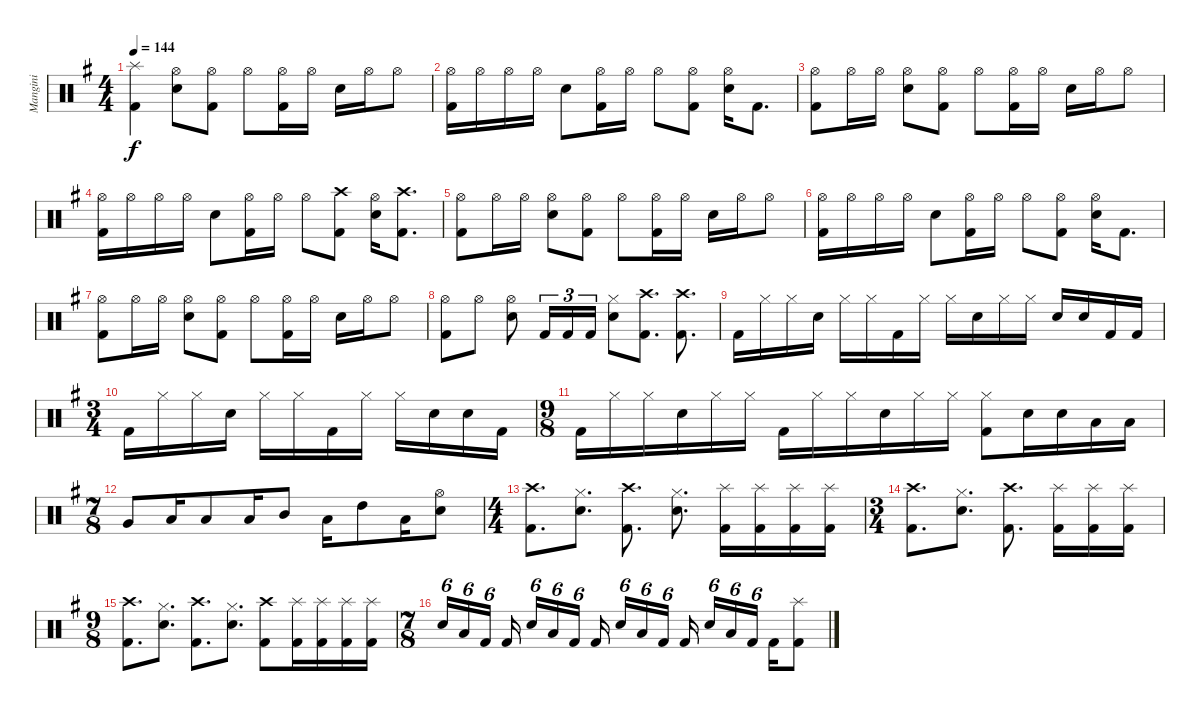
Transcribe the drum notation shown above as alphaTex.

\track ("Mangini" "Mangini") {instrument percussion}
\staff {score}
\articulation defaults
\ts (4 4)
\tempo 144
\clef neutral
\ks eminor
("Splash (hit)" "Kick (hit) 2").4{dy f} ("Hi-Hat (open)" "Snare (hit) 2").8 ("Hi-Hat (open)" "Kick (hit) 2").8 "Hi-Hat (open)".8 ("Hi-Hat (open)" "Kick (hit) 2").16 "Hi-Hat (open)".16 "Snare (hit) 2".16 "Hi-Hat (open)".16 "Hi-Hat (open)".8 |
("Hi-Hat (open)" "Kick (hit) 2").16 "Hi-Hat (open)".16 "Hi-Hat (open)".16 "Hi-Hat (open)".16 "Snare (hit) 2".8 ("Hi-Hat (open)" "Kick (hit) 2").16 "Hi-Hat (open)".16 "Hi-Hat (open)".8 ("Hi-Hat (open)" "Kick (hit) 2").8 ("Hi-Hat (open)" "Snare (hit) 2").16 "Kick (hit) 2".8{d} |
("Hi-Hat (open)" "Kick (hit) 2").8 "Hi-Hat (open)".16 "Hi-Hat (open)".16 ("Hi-Hat (open)" "Snare (hit) 2").8 ("Hi-Hat (open)" "Kick (hit) 2").8 "Hi-Hat (open)".8 ("Hi-Hat (open)" "Kick (hit) 2").16 "Hi-Hat (open)".16 "Snare (hit) 2".16 "Hi-Hat (open)".16 "Hi-Hat (open)".8 |
("Hi-Hat (open)" "Kick (hit) 2").16 "Hi-Hat (open)".16 "Hi-Hat (open)".16 "Hi-Hat (open)".16 "Snare (hit) 2".8 ("Hi-Hat (open)" "Kick (hit) 2").16 "Hi-Hat (open)".16 "Hi-Hat (open)".8 ("Crash high (hit)" "Kick (hit) 2").8 ("Hi-Hat (open)" "Snare (hit) 2").16 ("Crash high (hit)" "Kick (hit) 2").8{d} |
("Hi-Hat (open)" "Kick (hit) 2").8 "Hi-Hat (open)".16 "Hi-Hat (open)".16 ("Hi-Hat (open)" "Snare (hit) 2").8 ("Hi-Hat (open)" "Kick (hit) 2").8 "Hi-Hat (open)".8 ("Hi-Hat (open)" "Kick (hit) 2").16 "Hi-Hat (open)".16 "Snare (hit) 2".16 "Hi-Hat (open)".16 "Hi-Hat (open)".8 |
("Hi-Hat (open)" "Kick (hit) 2").16 "Hi-Hat (open)".16 "Hi-Hat (open)".16 "Hi-Hat (open)".16 "Snare (hit) 2".8 ("Hi-Hat (open)" "Kick (hit) 2").16 "Hi-Hat (open)".16 "Hi-Hat (open)".8 ("Hi-Hat (open)" "Kick (hit) 2").8 ("Hi-Hat (open)" "Snare (hit) 2").16 "Kick (hit) 2".8{d} |
("Hi-Hat (open)" "Kick (hit) 2").8 "Hi-Hat (open)".16 "Hi-Hat (open)".16 ("Hi-Hat (open)" "Snare (hit) 2").8 ("Hi-Hat (open)" "Kick (hit) 2").8 "Hi-Hat (open)".8 ("Hi-Hat (open)" "Kick (hit) 2").16 "Hi-Hat (open)".16 "Snare (hit) 2".16 "Hi-Hat (open)".16 "Hi-Hat (open)".8 |
("Hi-Hat (open)" "Kick (hit) 2").8 "Hi-Hat (open)".8 ("Hi-Hat (open)" "Snare (hit) 2").8 "Kick (hit) 2".16{tu (3 2)} "Kick (hit) 2".16{tu (3 2)} "Kick (hit) 2".16{tu (3 2)} ("Hi-Hat (closed)" "Snare (hit) 2").8 ("Crash high (hit)" "Kick (hit) 2").8{d} ("Crash high (hit)" "Kick (hit) 2").8{d} |
"Kick (hit) 2".16 "Hi-Hat (closed)".16 "Hi-Hat (closed)".16 "Snare (hit) 2".16 "Hi-Hat (closed)".16 "Hi-Hat (closed)".16 "Kick (hit) 2".16 "Hi-Hat (closed)".16 "Hi-Hat (closed)".16 "Snare (hit) 2".16 "Hi-Hat (closed)".16 "Hi-Hat (closed)".16 "Snare (hit) 2".16 "Snare (hit) 2".16 "Kick (hit) 2".16 "Kick (hit) 2".16 |
\ts (3 4)
"Kick (hit) 2".16 "Hi-Hat (closed)".16 "Hi-Hat (closed)".16 "Snare (hit) 2".16 "Hi-Hat (closed)".16 "Hi-Hat (closed)".16 "Kick (hit) 2".16 "Hi-Hat (closed)".16 "Hi-Hat (closed)".16 "Snare (hit) 2".16 "Snare (hit) 2".16 "Kick (hit) 2".16 |
\ts (9 8)
"Kick (hit) 2".16 "Hi-Hat (closed)".16 "Hi-Hat (closed)".16 "Snare (hit) 2".16 "Hi-Hat (closed)".16 "Hi-Hat (closed)".16 "Kick (hit) 2".16 "Hi-Hat (closed)".16 "Hi-Hat (closed)".16 "Snare (hit) 2".16 "Hi-Hat (closed)".16 "Hi-Hat (closed)".16 ("Hi-Hat (closed)" "Kick (hit) 2").8 "Snare (hit) 2".16 "Snare (hit) 2".16 "Low Tom (hit)".16 "Low Tom (hit)".16 |
\ts (7 8)
"Very Low Tom (hit)".8 "Low Floor Tom (hit)".16 "Low Tom (hit)".8 "Low Floor Tom (hit)".16 "Mid Tom (hit)".8 "Low Floor Tom (hit)".16 "High Tom (hit)".8 "Low Floor Tom (hit)".16 ("Hi-Hat (open)" "Snare (hit) 2").8 |
\ts (4 4)
("Crash high (hit)" "Kick (hit) 2").8{d} ("Hi-Hat (closed)" "Snare (hit) 2").8{d} ("Crash high (hit)" "Kick (hit) 2").8{d} ("Hi-Hat (closed)" "Snare (hit) 2").8{d} ("Splash (hit)" "Kick (hit) 2").16 ("Splash (hit)" "Kick (hit) 2").16 ("Splash (hit)" "Kick (hit) 2").16 ("Splash (hit)" "Kick (hit) 2").16 |
\ts (3 4)
("Crash high (hit)" "Kick (hit) 2").8{d} ("Hi-Hat (closed)" "Snare (hit) 2").8{d} ("Crash high (hit)" "Kick (hit) 2").8{d} ("Splash (hit)" "Kick (hit) 2").16 ("Splash (hit)" "Kick (hit) 2").16 ("Splash (hit)" "Kick (hit) 2").16 |
\ts (9 8)
("Crash high (hit)" "Kick (hit) 2").8{d} ("Hi-Hat (closed)" "Snare (hit) 2").8{d} ("Crash high (hit)" "Kick (hit) 2").8{d} ("Hi-Hat (closed)" "Snare (hit) 2").8{d} ("Crash high (hit)" "Kick (hit) 2").8 ("Splash (hit)" "Kick (hit) 2").16 ("Splash (hit)" "Kick (hit) 2").16 ("Splash (hit)" "Kick (hit) 2").16 ("Splash (hit)" "Kick (hit) 2").16 |
\ts (7 8)
"Snare (hit) 2".16{tu (6 4)} "Low Tom (hit)".16{tu (6 4)} "Kick (hit) 2".16{tu (6 4)} "Kick (hit) 2".16{beam splitsecondary} "Snare (hit) 2".16{tu (6 4)} "Low Tom (hit)".16{tu (6 4)} "Kick (hit) 2".16{tu (6 4)} "Kick (hit) 2".16 "Snare (hit) 2".16{tu (6 4)} "Low Tom (hit)".16{tu (6 4)} "Kick (hit) 2".16{tu (6 4)} "Kick (hit) 2".16{beam splitsecondary} "Snare (hit) 2".16{tu (6 4)} "Low Tom (hit)".16{tu (6 4)} "Kick (hit) 2".16{tu (6 4)} "Kick (hit) 2".16 ("Splash (hit)" "Kick (hit) 2").8
